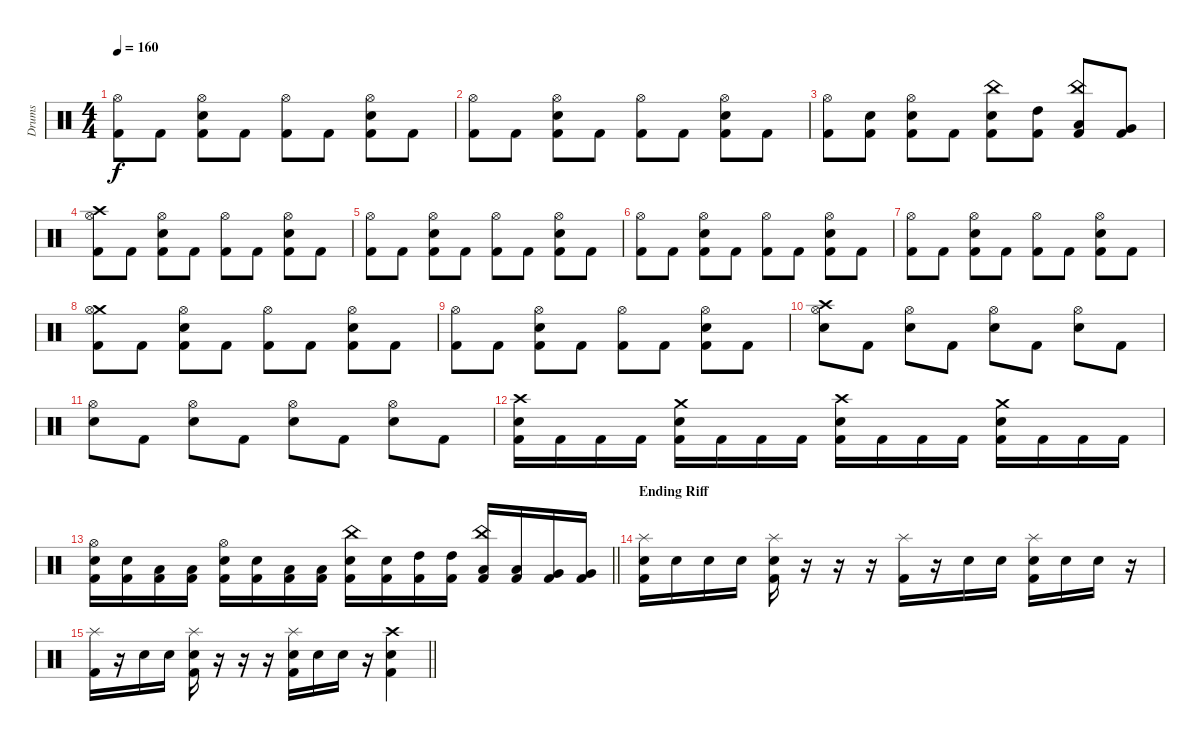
\track ("Drums" "Drums") {instrument percussion}
\staff {score}
\articulation defaults
\ts (4 4)
\tempo 160
\clef neutral
\ks c
("Hi-Hat (open)" "Kick (hit) 2").8{dy f} "Kick (hit) 2".8 ("Hi-Hat (open)" "Snare (hit) 2" "Kick (hit) 2").8 "Kick (hit) 2".8 ("Hi-Hat (open)" "Kick (hit) 2").8 "Kick (hit) 2".8 ("Hi-Hat (open)" "Snare (hit) 2" "Kick (hit) 2").8 "Kick (hit) 2".8 |
("Hi-Hat (open)" "Kick (hit) 2").8 "Kick (hit) 2".8 ("Hi-Hat (open)" "Snare (hit) 2" "Kick (hit) 2").8 "Kick (hit) 2".8 ("Hi-Hat (open)" "Kick (hit) 2").8 "Kick (hit) 2".8 ("Hi-Hat (open)" "Snare (hit) 2" "Kick (hit) 2").8 "Kick (hit) 2".8 |
("Hi-Hat (open)" "Kick (hit) 2").8 ("Snare (hit) 2" "Kick (hit) 2").8 ("Hi-Hat (open)" "Snare (hit) 2" "Kick (hit) 2").8 "Kick (hit) 2".8 ("China (hit)" "Snare (hit) 2" "Kick (hit) 2").8 ("High Tom (hit)" "Kick (hit) 2").8 ("China (hit)" "Low Tom (hit)" "Kick (hit) 2").8 ("Very Low Tom (hit)" "Kick (hit) 2").8 |
("Crash high (hit)" "Hi-Hat (open)" "Kick (hit) 2").8 "Kick (hit) 2".8 ("Hi-Hat (open)" "Snare (hit) 2" "Kick (hit) 2").8 "Kick (hit) 2".8 ("Hi-Hat (open)" "Kick (hit) 2").8 "Kick (hit) 2".8 ("Hi-Hat (open)" "Snare (hit) 2" "Kick (hit) 2").8 "Kick (hit) 2".8 |
("Hi-Hat (open)" "Kick (hit) 2").8 "Kick (hit) 2".8 ("Hi-Hat (open)" "Snare (hit) 2" "Kick (hit) 2").8 "Kick (hit) 2".8 ("Hi-Hat (open)" "Kick (hit) 2").8 "Kick (hit) 2".8 ("Hi-Hat (open)" "Snare (hit) 2" "Kick (hit) 2").8 "Kick (hit) 2".8 |
("Hi-Hat (open)" "Kick (hit) 2").8 "Kick (hit) 2".8 ("Hi-Hat (open)" "Snare (hit) 2" "Kick (hit) 2").8 "Kick (hit) 2".8 ("Hi-Hat (open)" "Kick (hit) 2").8 "Kick (hit) 2".8 ("Hi-Hat (open)" "Snare (hit) 2" "Kick (hit) 2").8 "Kick (hit) 2".8 |
("Hi-Hat (open)" "Kick (hit) 2").8 "Kick (hit) 2".8 ("Hi-Hat (open)" "Snare (hit) 2" "Kick (hit) 2").8 "Kick (hit) 2".8 ("Hi-Hat (open)" "Kick (hit) 2").8 "Kick (hit) 2".8 ("Hi-Hat (open)" "Snare (hit) 2" "Kick (hit) 2").8 "Kick (hit) 2".8 |
("Crash medium (hit)" "Hi-Hat (open)" "Kick (hit) 2").8 "Kick (hit) 2".8 ("Hi-Hat (open)" "Snare (hit) 2" "Kick (hit) 2").8 "Kick (hit) 2".8 ("Hi-Hat (open)" "Kick (hit) 2").8 "Kick (hit) 2".8 ("Hi-Hat (open)" "Snare (hit) 2" "Kick (hit) 2").8 "Kick (hit) 2".8 |
("Hi-Hat (open)" "Kick (hit) 2").8 "Kick (hit) 2".8 ("Hi-Hat (open)" "Snare (hit) 2" "Kick (hit) 2").8 "Kick (hit) 2".8 ("Hi-Hat (open)" "Kick (hit) 2").8 "Kick (hit) 2".8 ("Hi-Hat (open)" "Snare (hit) 2" "Kick (hit) 2").8 "Kick (hit) 2".8 |
("Crash high (hit)" "Hi-Hat (open)" "Snare (hit) 2").8 "Kick (hit) 2".8 ("Hi-Hat (open)" "Snare (hit) 2").8 "Kick (hit) 2".8 ("Hi-Hat (open)" "Snare (hit) 2").8 "Kick (hit) 2".8 ("Hi-Hat (open)" "Snare (hit) 2").8 "Kick (hit) 2".8 |
("Hi-Hat (open)" "Snare (hit) 2").8 "Kick (hit) 2".8 ("Hi-Hat (open)" "Snare (hit) 2").8 "Kick (hit) 2".8 ("Hi-Hat (open)" "Snare (hit) 2").8 "Kick (hit) 2".8 ("Hi-Hat (open)" "Snare (hit) 2").8 "Kick (hit) 2".8 |
("Crash high (hit)" "Snare (hit) 2" "Kick (hit) 2").16 "Kick (hit) 2".16 "Kick (hit) 2".16 "Kick (hit) 2".16 ("Crash medium (hit)" "Snare (hit) 2" "Kick (hit) 2").16 "Kick (hit) 2".16 "Kick (hit) 2".16 "Kick (hit) 2".16 ("Crash high (hit)" "Snare (hit) 2" "Kick (hit) 2").16 "Kick (hit) 2".16 "Kick (hit) 2".16 "Kick (hit) 2".16 ("Crash medium (hit)" "Snare (hit) 2" "Kick (hit) 2").16 "Kick (hit) 2".16 "Kick (hit) 2".16 "Kick (hit) 2".16 |
\barLineRight lightlight
("Hi-Hat (open)" "Snare (hit) 2" "Kick (hit) 2").16 ("Snare (hit) 2" "Kick (hit) 2").16 ("Low Floor Tom (hit)" "Kick (hit) 2").16 ("Low Floor Tom (hit)" "Kick (hit) 2").16 ("Hi-Hat (open)" "Snare (hit) 2" "Kick (hit) 2").16 ("Snare (hit) 2" "Kick (hit) 2").16 ("Low Floor Tom (hit)" "Kick (hit) 2").16 ("Low Floor Tom (hit)" "Kick (hit) 2").16 ("China (hit)" "Snare (hit) 2" "Kick (hit) 2").16 ("Snare (hit) 2" "Kick (hit) 2").16 ("High Tom (hit)" "Kick (hit) 2").16 ("High Tom (hit)" "Kick (hit) 2").16 ("China (hit)" "Low Tom (hit)" "Kick (hit) 2").16 ("Low Tom (hit)" "Kick (hit) 2").16 ("Very Low Tom (hit)" "Kick (hit) 2").16 ("Very Low Tom (hit)" "Kick (hit) 2").16 |
\section ("" "Ending Riff")
("Splash (hit)" "Snare (hit) 2" "Kick (hit) 2").16 "Snare (hit) 2".16 "Snare (hit) 2".16 "Snare (hit) 2".16 ("Splash (hit)" "Snare (hit) 2" "Kick (hit) 2").16 r.16 r.16 r.16 ("Splash (hit)" "Kick (hit) 2").16 r.16 "Snare (hit) 2".16 "Snare (hit) 2".16 ("Splash (hit)" "Snare (hit) 2" "Kick (hit) 2").16 "Snare (hit) 2".16 "Snare (hit) 2".16 r.16 |
\barLineRight lightlight
("Splash (hit)" "Kick (hit) 2").16 r.16 "Snare (hit) 2".16 "Snare (hit) 2".16 ("Splash (hit)" "Snare (hit) 2" "Kick (hit) 2").16 r.16 r.16 r.16 ("Splash (hit)" "Snare (hit) 2" "Kick (hit) 2").16 "Snare (hit) 2".16 "Snare (hit) 2".16 r.16 ("Crash high (hit)" "Snare (hit) 2" "Kick (hit) 2").4
